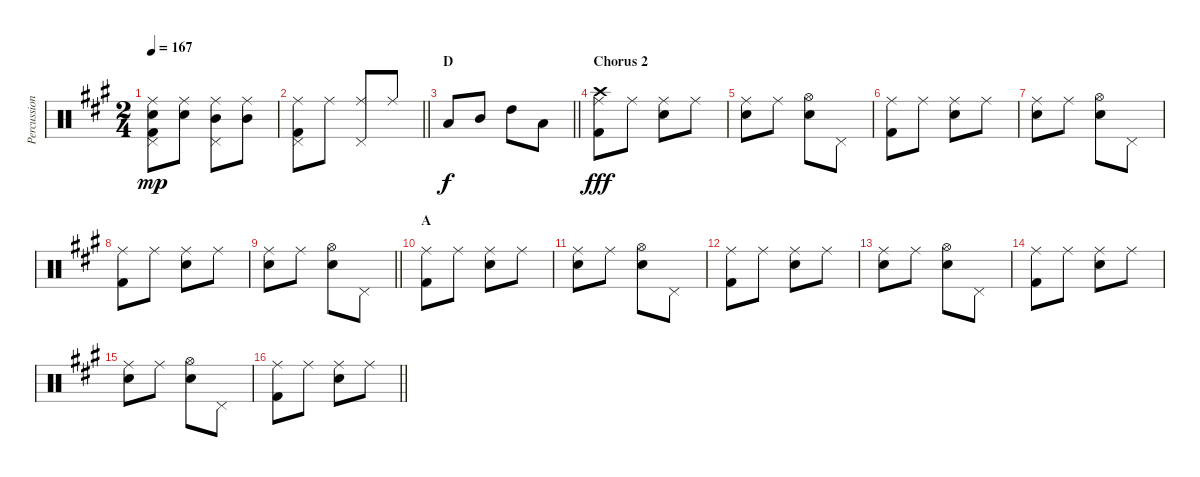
\track ("Percussion" "Percussion") {instrument percussion}
\staff {score}
\articulation defaults
\ts (2 4)
\tempo 167
\clef neutral
\ks a
("Ride (middle)" "Snare (hit) 2" "Pedal Hi-Hat (hit)" "Kick (hit) 2").8{dy mp} ("Ride (middle)" "Snare (hit) 2").8 ("Ride (middle)" "Mid Tom (hit)" "Pedal Hi-Hat (hit)").8 ("Ride (middle)" "Mid Tom (hit)").8 |
\barLineRight lightlight
("Ride (middle)" "Pedal Hi-Hat (hit)" "Kick (hit) 2").8 "Ride (middle)".8 ("Ride (middle)" "Pedal Hi-Hat (hit)").8 "Ride (middle)".8 |
\section ("" "D")
\barLineRight lightlight "Low Tom (hit)".8{dy f} "Mid Tom (hit)".8 "High Tom (hit)".8 "Low Tom (hit)".8
|
\section ("" "Chorus 2")
("Ride (middle)" "Kick (hit) 2" "Crash high (hit)").8{dy fff} "Ride (middle)".8 ("Ride (middle)" "Snare (hit) 2").8 "Ride (middle)".8 |
("Ride (middle)" "Snare (hit) 2").8 "Ride (middle)".8 ("Hi-Hat (open)" "Snare (hit) 2").8 "Pedal Hi-Hat (hit)".8 |
("Ride (middle)" "Kick (hit) 2").8 "Ride (middle)".8 ("Ride (middle)" "Snare (hit) 2").8 "Ride (middle)".8 |
("Ride (middle)" "Snare (hit) 2").8 "Ride (middle)".8 ("Hi-Hat (open)" "Snare (hit) 2").8 "Pedal Hi-Hat (hit)".8 |
("Ride (middle)" "Kick (hit) 2").8 "Ride (middle)".8 ("Ride (middle)" "Snare (hit) 2").8 "Ride (middle)".8 |
\barLineRight lightlight
("Ride (middle)" "Snare (hit) 2").8 "Ride (middle)".8 ("Hi-Hat (open)" "Snare (hit) 2").8 "Pedal Hi-Hat (hit)".8 |
\section ("" "A")
("Ride (middle)" "Kick (hit) 2").8 "Ride (middle)".8 ("Ride (middle)" "Snare (hit) 2").8 "Ride (middle)".8 |
("Ride (middle)" "Snare (hit) 2").8 "Ride (middle)".8 ("Hi-Hat (open)" "Snare (hit) 2").8 "Pedal Hi-Hat (hit)".8 |
("Ride (middle)" "Kick (hit) 2").8 "Ride (middle)".8 ("Ride (middle)" "Snare (hit) 2").8 "Ride (middle)".8 |
("Ride (middle)" "Snare (hit) 2").8 "Ride (middle)".8 ("Hi-Hat (open)" "Snare (hit) 2").8 "Pedal Hi-Hat (hit)".8 |
("Ride (middle)" "Kick (hit) 2").8 "Ride (middle)".8 ("Ride (middle)" "Snare (hit) 2").8 "Ride (middle)".8 |
("Ride (middle)" "Snare (hit) 2").8 "Ride (middle)".8 ("Hi-Hat (open)" "Snare (hit) 2").8 "Pedal Hi-Hat (hit)".8 |
\barLineRight lightlight
("Ride (middle)" "Kick (hit) 2").8 "Ride (middle)".8 ("Ride (middle)" "Snare (hit) 2").8 "Ride (middle)".8
